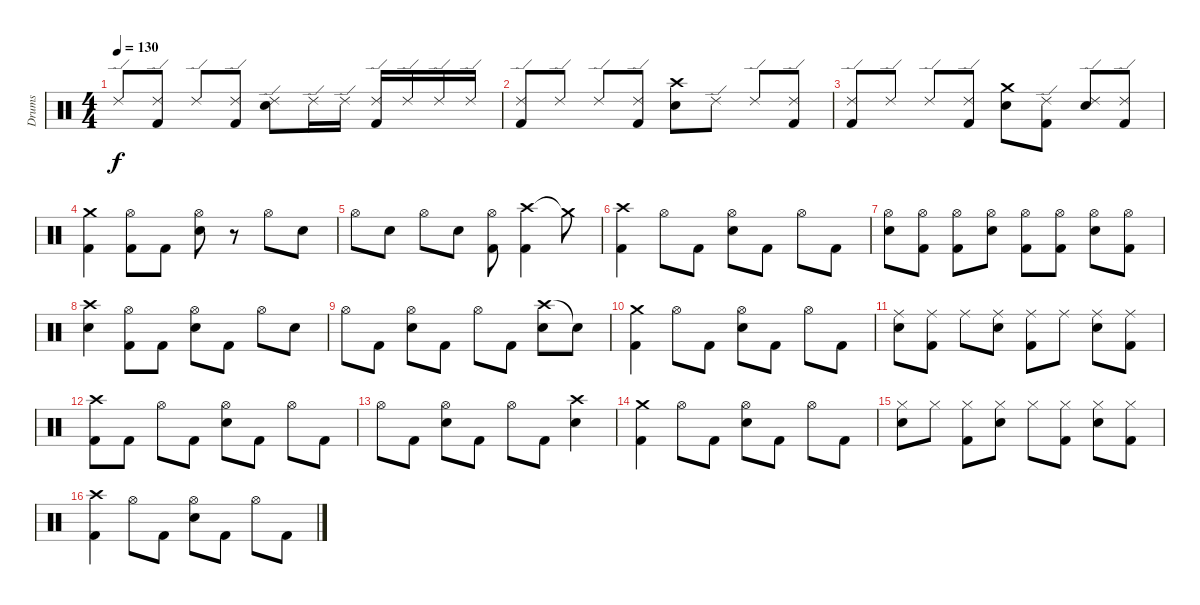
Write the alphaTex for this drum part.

\track ("Drums" "Drums") {instrument percussion}
\staff {score}
\articulation defaults
\ts (4 4)
\tempo 130
\clef neutral
\ks c "Ride (edge) 2".8{dy f}
("Ride (edge) 2" "Kick (hit) 2").8 "Ride (edge) 2".8 ("Ride (edge) 2" "Kick (hit) 2").8 ("Ride (edge) 2" "Snare (hit) 2").8 "Ride (edge) 2".16 "Ride (edge) 2".16 ("Ride (edge) 2" "Kick (hit) 2").16 "Ride (edge) 2".16 "Ride (edge) 2".16 "Ride (edge) 2".16 |
("Ride (edge) 2" "Kick (hit) 2").8 "Ride (edge) 2".8 "Ride (edge) 2".8 ("Ride (edge) 2" "Kick (hit) 2").8 ("Crash high (hit)" "Snare (hit) 2").8 "Ride (edge) 2".8 "Ride (edge) 2".8 ("Ride (edge) 2" "Kick (hit) 2").8 |
("Ride (edge) 2" "Kick (hit) 2").8 "Ride (edge) 2".8 "Ride (edge) 2".8 ("Ride (edge) 2" "Kick (hit) 2").8 ("Crash medium (hit)" "Snare (hit) 2").8 ("Ride (edge) 2" "Kick (hit) 2").8 ("Ride (edge) 2" "Snare (hit) 2").8 ("Ride (edge) 2" "Kick (hit) 2").8 |
("Crash medium (hit)" "Kick (hit) 2").4 ("Hi-Hat (open)" "Kick (hit) 2").8 "Kick (hit) 2".8 ("Hi-Hat (open)" "Snare (hit) 2").8 r.8 "Hi-Hat (open)".8 "Snare (hit) 2".8 |
"Hi-Hat (open)".8 "Snare (hit) 2".8 "Hi-Hat (open)".8 "Snare (hit) 2".8 ("Hi-Hat (open)" "Kick (hit) 2").8 ("Crash high (hit)" "Kick (hit) 2").4 "Crash medium (hit)"{t}.8 |
("Crash high (hit)" "Kick (hit) 2").4 "Hi-Hat (open)".8 "Kick (hit) 2".8 ("Hi-Hat (open)" "Snare (hit) 2").8 "Kick (hit) 2".8 "Hi-Hat (open)".8 "Kick (hit) 2".8 |
("Hi-Hat (open)" "Snare (hit) 2").8 ("Hi-Hat (open)" "Kick (hit) 2").8 ("Hi-Hat (open)" "Kick (hit) 2").8 ("Hi-Hat (open)" "Snare (hit) 2").8 ("Hi-Hat (open)" "Kick (hit) 2").8 ("Hi-Hat (open)" "Kick (hit) 2").8 ("Hi-Hat (open)" "Snare (hit) 2").8 ("Hi-Hat (open)" "Kick (hit) 2").8 |
("Crash high (hit)" "Snare (hit) 2").4 ("Hi-Hat (open)" "Kick (hit) 2").8 "Kick (hit) 2".8 ("Hi-Hat (open)" "Snare (hit) 2").8 "Kick (hit) 2".8 "Hi-Hat (open)".8 "Snare (hit) 2".8 |
"Hi-Hat (open)".8 "Kick (hit) 2".8 ("Hi-Hat (open)" "Snare (hit) 2").8 "Kick (hit) 2".8 "Hi-Hat (open)".8 "Kick (hit) 2".8 ("Crash high (hit)" "Snare (hit) 2").8 "Snare (hit)"{t}.8 |
("Crash medium (hit)" "Kick (hit) 2").4 "Hi-Hat (open)".8 "Kick (hit) 2".8 ("Hi-Hat (open)" "Snare (hit) 2").8 "Kick (hit) 2".8 "Hi-Hat (open)".8 "Kick (hit) 2".8 |
("Ride (middle)" "Snare (hit) 2").8 ("Ride (middle)" "Kick (hit) 2").8 "Ride (middle)".8 ("Ride (middle)" "Snare (hit) 2").8 ("Ride (middle)" "Kick (hit) 2").8 "Ride (middle)".8 ("Ride (middle)" "Snare (hit) 2").8 ("Ride (middle)" "Kick (hit) 2").8 |
("Crash high (hit)" "Kick (hit) 2").8 "Kick (hit) 2".8 "Hi-Hat (open)".8 "Kick (hit) 2".8 ("Hi-Hat (open)" "Snare (hit) 2").8 "Kick (hit) 2".8 "Hi-Hat (open)".8 "Kick (hit) 2".8 |
"Hi-Hat (open)".8 "Kick (hit) 2".8 ("Hi-Hat (open)" "Snare (hit) 2").8 "Kick (hit) 2".8 "Hi-Hat (open)".8 "Kick (hit) 2".8 ("Crash high (hit)" "Snare (hit) 2").4 |
("Crash medium (hit)" "Kick (hit) 2").4 "Hi-Hat (open)".8 "Kick (hit) 2".8 ("Hi-Hat (open)" "Snare (hit) 2").8 "Kick (hit) 2".8 "Hi-Hat (open)".8 "Kick (hit) 2".8 |
("Hi-Hat (closed)" "Snare (hit) 2").8 "Hi-Hat (closed)".8 ("Hi-Hat (closed)" "Kick (hit) 2").8 ("Hi-Hat (closed)" "Snare (hit) 2").8 "Hi-Hat (closed)".8 ("Hi-Hat (closed)" "Kick (hit) 2").8 ("Hi-Hat (closed)" "Snare (hit) 2").8 ("Hi-Hat (closed)" "Kick (hit) 2").8 |
("Crash high (hit)" "Kick (hit) 2").4 "Hi-Hat (open)".8 "Kick (hit) 2".8 ("Hi-Hat (open)" "Snare (hit) 2").8 "Kick (hit) 2".8 "Hi-Hat (open)".8 "Kick (hit) 2".8
